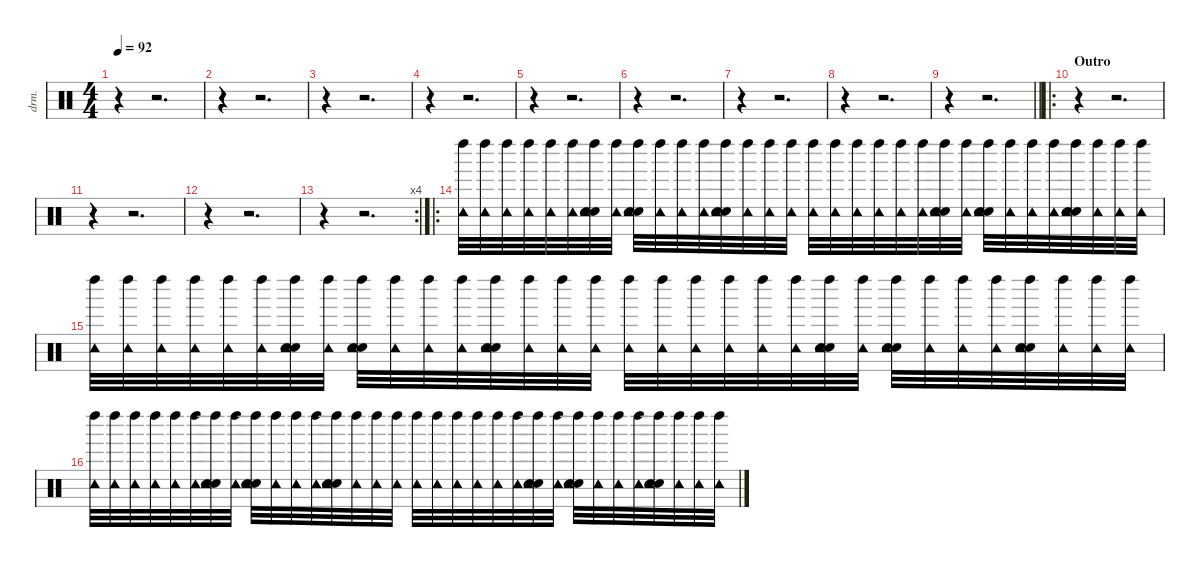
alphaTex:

\defaultSystemsLayout 4
\hideDynamics
\bracketExtendMode nobrackets
\otherSystemsTrackNameOrientation horizontal
\track ("Percussions" "drm.") {instrument percussion}
\staff {score}
\articulation defaults
\ts (4 4)
\tempo 92
\clef neutral
\ks c
r.4{dy mp beam Down} r.2{d beam Down} |
r.4{beam Down} r.2{d beam Down} |
r.4{beam Down} r.2{d beam Down} |
r.4{beam Down} r.2{d beam Down} |
r.4{beam Down} r.2{d beam Down} |
r.4{beam Down} r.2{d beam Down} |
r.4{beam Down} r.2{d beam Down} |
r.4{beam Down} r.2{d beam Down} |
\barLineRight lightlight
r.4{beam Down} r.2{d beam Down} |
\ro
\section ("" "Outro")
r.4{beam Down} r.2{d beam Down} |
r.4{beam Down} r.2{d beam Down} |
r.4{beam Down} r.2{d beam Down} |
\rc 4
r.4{beam Down} r.2{d beam Down} |
\ro
("Tambourine (hit)" "Left Maraca (hit)").32{beam Down} ("Tambourine (hit)" "Left Maraca (hit)").32{beam Down} ("Tambourine (hit)" "Left Maraca (hit)").32{beam Down} ("Tambourine (hit)" "Left Maraca (hit)").32{beam Down} ("Tambourine (hit)" "Left Maraca (hit)").32{beam Down} ("Tambourine (hit)" "Left Maraca (hit)").32{beam Down} ("Snare (hit) 2" "Snare (hit) 2" "Tambourine (hit)" "Left Maraca (hit)").32{dy fff beam Down} ("Tambourine (hit)" "Left Maraca (hit)").32{dy mp beam Down} ("Snare (hit) 2" "Snare (hit) 2" "Tambourine (hit)" "Left Maraca (hit)").32{dy fff beam Down} ("Tambourine (hit)" "Left Maraca (hit)").32{dy mp beam Down} ("Tambourine (hit)" "Left Maraca (hit)").32{beam Down} ("Tambourine (hit)" "Left Maraca (hit)").32{beam Down} ("Snare (hit) 2" "Snare (hit) 2" "Tambourine (hit)" "Left Maraca (hit)").32{dy fff beam Down} ("Tambourine (hit)" "Left Maraca (hit)").32{dy mp beam Down} ("Tambourine (hit)" "Left Maraca (hit)").32{beam Down} ("Tambourine (hit)" "Left Maraca (hit)").32{beam Down} ("Tambourine (hit)" "Left Maraca (hit)").32{beam Down} ("Tambourine (hit)" "Left Maraca (hit)").32{beam Down} ("Tambourine (hit)" "Left Maraca (hit)").32{beam Down} ("Tambourine (hit)" "Left Maraca (hit)").32{beam Down} ("Tambourine (hit)" "Left Maraca (hit)").32{beam Down} ("Tambourine (hit)" "Left Maraca (hit)").32{beam Down} ("Snare (hit) 2" "Snare (hit) 2" "Tambourine (hit)" "Left Maraca (hit)").32{dy fff beam Down} ("Tambourine (hit)" "Left Maraca (hit)").32{dy mp beam Down} ("Snare (hit) 2" "Snare (hit) 2" "Tambourine (hit)" "Left Maraca (hit)").32{dy fff beam Down} ("Tambourine (hit)" "Left Maraca (hit)").32{dy mp beam Down} ("Tambourine (hit)" "Left Maraca (hit)").32{beam Down} ("Tambourine (hit)" "Left Maraca (hit)").32{beam Down} ("Snare (hit) 2" "Snare (hit) 2" "Tambourine (hit)" "Left Maraca (hit)").32{dy fff beam Down} ("Tambourine (hit)" "Left Maraca (hit)").32{dy mp beam Down} ("Tambourine (hit)" "Left Maraca (hit)").32{beam Down} ("Tambourine (hit)" "Left Maraca (hit)").32{beam Down} |
("Tambourine (hit)" "Left Maraca (hit)").32{beam Down} ("Tambourine (hit)" "Left Maraca (hit)").32{beam Down} ("Tambourine (hit)" "Left Maraca (hit)").32{beam Down} ("Tambourine (hit)" "Left Maraca (hit)").32{beam Down} ("Tambourine (hit)" "Left Maraca (hit)").32{beam Down} ("Tambourine (hit)" "Left Maraca (hit)").32{beam Down} ("Snare (hit) 2" "Snare (hit) 2" "Tambourine (hit)" "Left Maraca (hit)").32{dy fff beam Down} ("Tambourine (hit)" "Left Maraca (hit)").32{dy mp beam Down} ("Snare (hit) 2" "Snare (hit) 2" "Tambourine (hit)" "Left Maraca (hit)").32{dy fff beam Down} ("Tambourine (hit)" "Left Maraca (hit)").32{dy mp beam Down} ("Tambourine (hit)" "Left Maraca (hit)").32{beam Down} ("Tambourine (hit)" "Left Maraca (hit)").32{beam Down} ("Snare (hit) 2" "Snare (hit) 2" "Tambourine (hit)" "Left Maraca (hit)").32{dy fff beam Down} ("Tambourine (hit)" "Left Maraca (hit)").32{dy mp beam Down} ("Tambourine (hit)" "Left Maraca (hit)").32{beam Down} ("Tambourine (hit)" "Left Maraca (hit)").32{beam Down} ("Tambourine (hit)" "Left Maraca (hit)").32{beam Down} ("Tambourine (hit)" "Left Maraca (hit)").32{beam Down} ("Tambourine (hit)" "Left Maraca (hit)").32{beam Down} ("Tambourine (hit)" "Left Maraca (hit)").32{beam Down} ("Tambourine (hit)" "Left Maraca (hit)").32{beam Down} ("Tambourine (hit)" "Left Maraca (hit)").32{beam Down} ("Snare (hit) 2" "Snare (hit) 2" "Tambourine (hit)" "Left Maraca (hit)").32{dy fff beam Down} ("Tambourine (hit)" "Left Maraca (hit)").32{dy mp beam Down} ("Snare (hit) 2" "Snare (hit) 2" "Tambourine (hit)" "Left Maraca (hit)").32{dy fff beam Down} ("Tambourine (hit)" "Left Maraca (hit)").32{dy mp beam Down} ("Tambourine (hit)" "Left Maraca (hit)").32{beam Down} ("Tambourine (hit)" "Left Maraca (hit)").32{beam Down} ("Snare (hit) 2" "Snare (hit) 2" "Tambourine (hit)" "Left Maraca (hit)").32{dy fff beam Down} ("Tambourine (hit)" "Left Maraca (hit)").32{dy mp beam Down} ("Tambourine (hit)" "Left Maraca (hit)").32{beam Down} ("Tambourine (hit)" "Left Maraca (hit)").32{beam Down} |
("Tambourine (hit)" "Left Maraca (hit)").32{beam Down} ("Tambourine (hit)" "Left Maraca (hit)").32{beam Down} ("Tambourine (hit)" "Left Maraca (hit)").32{beam Down} ("Tambourine (hit)" "Left Maraca (hit)").32{beam Down} ("Tambourine (hit)" "Left Maraca (hit)").32{beam Down} ("Tambourine (hit)" "Left Maraca (hit)").32{beam Down} ("Snare (hit) 2" "Snare (hit) 2" "Tambourine (hit)" "Left Maraca (hit)").32{dy fff beam Down} ("Tambourine (hit)" "Left Maraca (hit)").32{dy mp beam Down} ("Snare (hit) 2" "Snare (hit) 2" "Tambourine (hit)" "Left Maraca (hit)").32{dy fff beam Down} ("Tambourine (hit)" "Left Maraca (hit)").32{dy mp beam Down} ("Tambourine (hit)" "Left Maraca (hit)").32{beam Down} ("Tambourine (hit)" "Left Maraca (hit)").32{beam Down} ("Snare (hit) 2" "Snare (hit) 2" "Tambourine (hit)" "Left Maraca (hit)").32{dy fff beam Down} ("Tambourine (hit)" "Left Maraca (hit)").32{dy mp beam Down} ("Tambourine (hit)" "Left Maraca (hit)").32{beam Down} ("Tambourine (hit)" "Left Maraca (hit)").32{beam Down} ("Tambourine (hit)" "Left Maraca (hit)").32{beam Down} ("Tambourine (hit)" "Left Maraca (hit)").32{beam Down} ("Tambourine (hit)" "Left Maraca (hit)").32{beam Down} ("Tambourine (hit)" "Left Maraca (hit)").32{beam Down} ("Tambourine (hit)" "Left Maraca (hit)").32{beam Down} ("Tambourine (hit)" "Left Maraca (hit)").32{beam Down} ("Snare (hit) 2" "Snare (hit) 2" "Tambourine (hit)" "Left Maraca (hit)").32{dy fff beam Down} ("Tambourine (hit)" "Left Maraca (hit)").32{dy mp beam Down} ("Snare (hit) 2" "Snare (hit) 2" "Tambourine (hit)" "Left Maraca (hit)").32{dy fff beam Down} ("Tambourine (hit)" "Left Maraca (hit)").32{dy mp beam Down} ("Tambourine (hit)" "Left Maraca (hit)").32{beam Down} ("Tambourine (hit)" "Left Maraca (hit)").32{beam Down} ("Snare (hit) 2" "Snare (hit) 2" "Tambourine (hit)" "Left Maraca (hit)").32{dy fff beam Down} ("Tambourine (hit)" "Left Maraca (hit)").32{dy mp beam Down} ("Tambourine (hit)" "Left Maraca (hit)").32{beam Down} ("Tambourine (hit)" "Left Maraca (hit)").32{beam Down}
